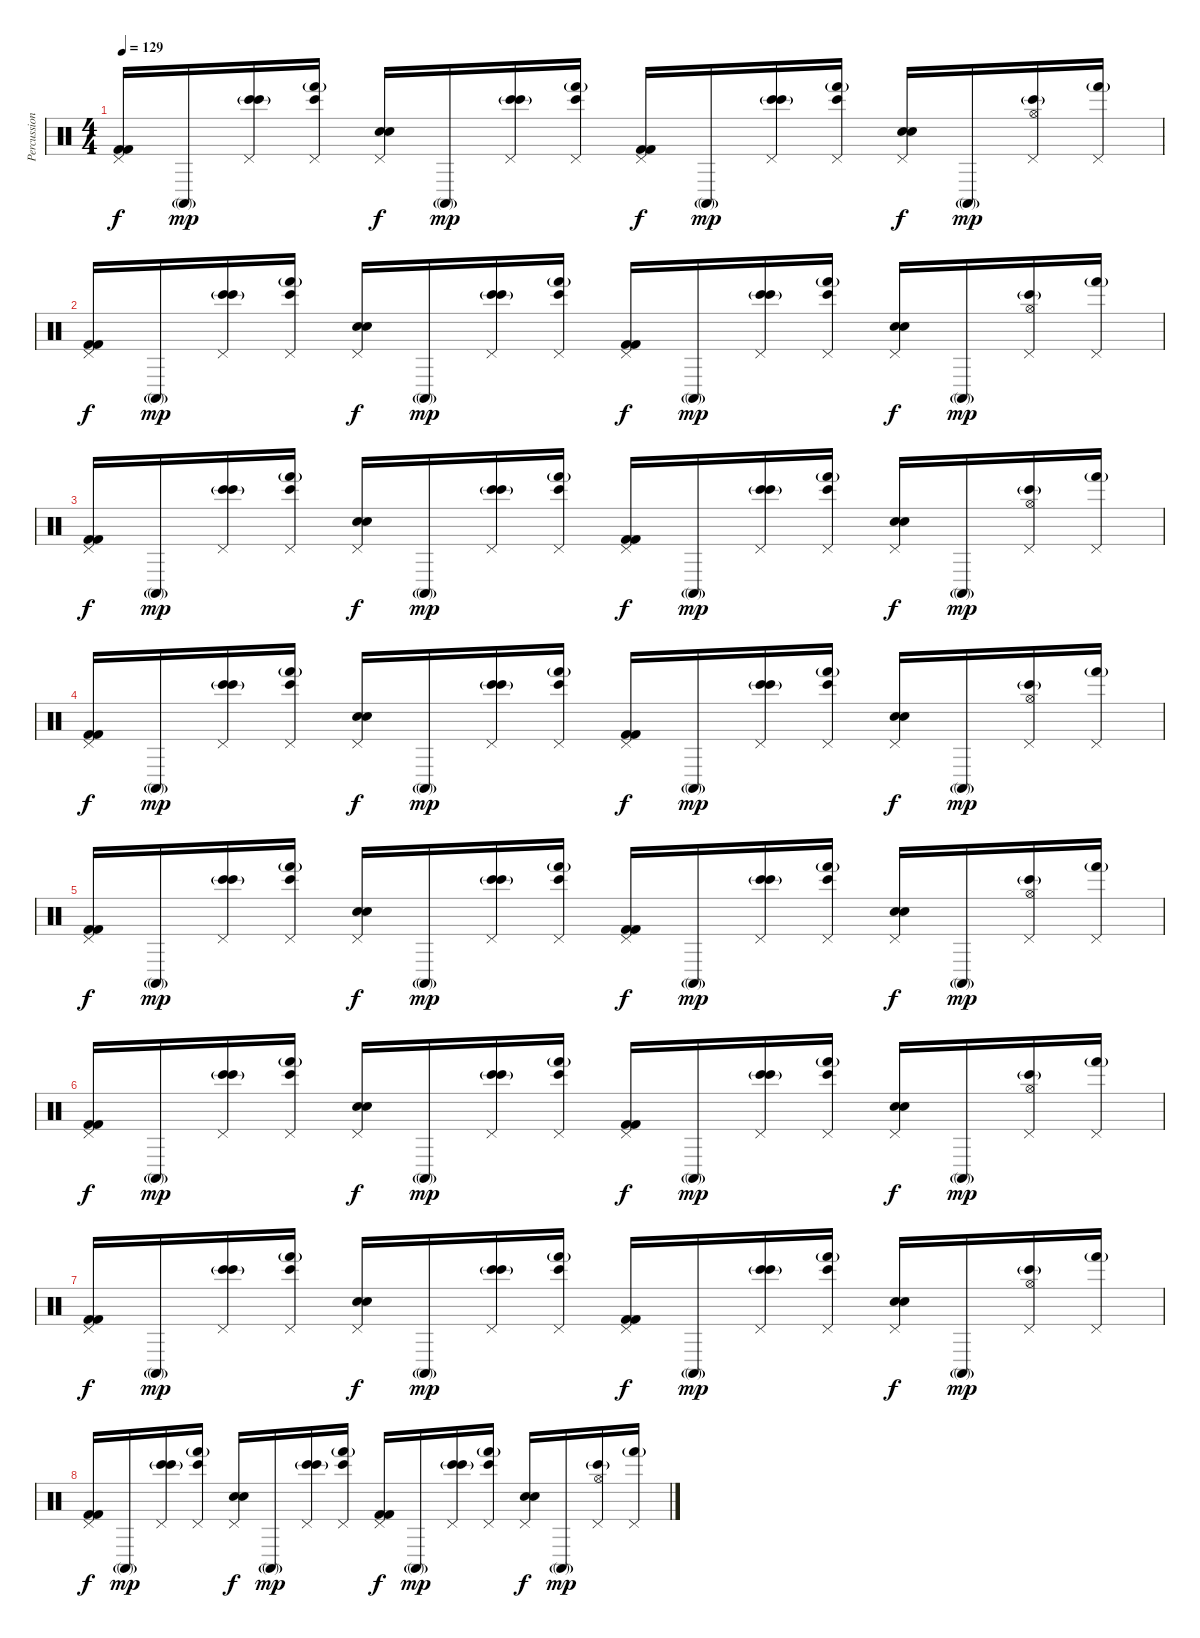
\track ("Percussion" "Percussion") {instrument percussion}
\staff {score}
\articulation defaults
\ts (4 4)
\tempo 129
\clef neutral
\ks c
("Pedal Hi-Hat (hit)" "Kick (hit) 2" "Kick (hit) 2").16{dy f} "Conga high (mute)"{g}.16{dy mp} ("Pedal Hi-Hat (hit)" "Bongo High (hit)" "Bongo High (hit)"{g}).16 ("Pedal Hi-Hat (hit)" "Bongo High (hit)" "Hand (hit)"{g}).16 ("Pedal Hi-Hat (hit)" "Electric Snare (hit)" "Snare (hit) 2").16{dy f} "Conga high (mute)"{g}.16{dy mp} ("Pedal Hi-Hat (hit)" "Bongo High (hit)" "Bongo High (hit)"{g}).16 ("Pedal Hi-Hat (hit)" "Bongo High (hit)" "Hand (hit)"{g}).16 ("Pedal Hi-Hat (hit)" "Kick (hit) 2" "Kick (hit) 2").16{dy f} "Conga high (mute)"{g}.16{dy mp} ("Pedal Hi-Hat (hit)" "Bongo High (hit)" "Bongo High (hit)"{g}).16 ("Pedal Hi-Hat (hit)" "Bongo High (hit)" "Hand (hit)"{g}).16 ("Pedal Hi-Hat (hit)" "Electric Snare (hit)" "Snare (hit) 2").16{dy f} "Conga high (mute)"{g}.16{dy mp} ("Pedal Hi-Hat (hit)" "Hi-Hat (open)" "Bongo High (hit)"{g}).16 ("Pedal Hi-Hat (hit)" "Hand (hit)"{g}).16 |
("Pedal Hi-Hat (hit)" "Kick (hit) 2" "Kick (hit) 2").16{dy f} "Conga high (mute)"{g}.16{dy mp} ("Pedal Hi-Hat (hit)" "Bongo High (hit)" "Bongo High (hit)"{g}).16 ("Pedal Hi-Hat (hit)" "Bongo High (hit)" "Hand (hit)"{g}).16 ("Pedal Hi-Hat (hit)" "Electric Snare (hit)" "Snare (hit) 2").16{dy f} "Conga high (mute)"{g}.16{dy mp} ("Pedal Hi-Hat (hit)" "Bongo High (hit)" "Bongo High (hit)"{g}).16 ("Pedal Hi-Hat (hit)" "Bongo High (hit)" "Hand (hit)"{g}).16 ("Pedal Hi-Hat (hit)" "Kick (hit) 2" "Kick (hit) 2").16{dy f} "Conga high (mute)"{g}.16{dy mp} ("Pedal Hi-Hat (hit)" "Bongo High (hit)" "Bongo High (hit)"{g}).16 ("Pedal Hi-Hat (hit)" "Bongo High (hit)" "Hand (hit)"{g}).16 ("Pedal Hi-Hat (hit)" "Electric Snare (hit)" "Snare (hit) 2").16{dy f} "Conga high (mute)"{g}.16{dy mp} ("Pedal Hi-Hat (hit)" "Hi-Hat (open)" "Bongo High (hit)"{g}).16 ("Pedal Hi-Hat (hit)" "Hand (hit)"{g}).16 |
("Pedal Hi-Hat (hit)" "Kick (hit) 2" "Kick (hit) 2").16{dy f} "Conga high (mute)"{g}.16{dy mp} ("Pedal Hi-Hat (hit)" "Bongo High (hit)" "Bongo High (hit)"{g}).16 ("Pedal Hi-Hat (hit)" "Bongo High (hit)" "Hand (hit)"{g}).16 ("Pedal Hi-Hat (hit)" "Electric Snare (hit)" "Snare (hit) 2").16{dy f} "Conga high (mute)"{g}.16{dy mp} ("Pedal Hi-Hat (hit)" "Bongo High (hit)" "Bongo High (hit)"{g}).16 ("Pedal Hi-Hat (hit)" "Bongo High (hit)" "Hand (hit)"{g}).16 ("Pedal Hi-Hat (hit)" "Kick (hit) 2" "Kick (hit) 2").16{dy f} "Conga high (mute)"{g}.16{dy mp} ("Pedal Hi-Hat (hit)" "Bongo High (hit)" "Bongo High (hit)"{g}).16 ("Pedal Hi-Hat (hit)" "Bongo High (hit)" "Hand (hit)"{g}).16 ("Pedal Hi-Hat (hit)" "Electric Snare (hit)" "Snare (hit) 2").16{dy f} "Conga high (mute)"{g}.16{dy mp} ("Pedal Hi-Hat (hit)" "Hi-Hat (open)" "Bongo High (hit)"{g}).16 ("Pedal Hi-Hat (hit)" "Hand (hit)"{g}).16 |
("Pedal Hi-Hat (hit)" "Kick (hit) 2" "Kick (hit) 2").16{dy f} "Conga high (mute)"{g}.16{dy mp} ("Pedal Hi-Hat (hit)" "Bongo High (hit)" "Bongo High (hit)"{g}).16 ("Pedal Hi-Hat (hit)" "Bongo High (hit)" "Hand (hit)"{g}).16 ("Pedal Hi-Hat (hit)" "Electric Snare (hit)" "Snare (hit) 2").16{dy f} "Conga high (mute)"{g}.16{dy mp} ("Pedal Hi-Hat (hit)" "Bongo High (hit)" "Bongo High (hit)"{g}).16 ("Pedal Hi-Hat (hit)" "Bongo High (hit)" "Hand (hit)"{g}).16 ("Pedal Hi-Hat (hit)" "Kick (hit) 2" "Kick (hit) 2").16{dy f} "Conga high (mute)"{g}.16{dy mp} ("Pedal Hi-Hat (hit)" "Bongo High (hit)" "Bongo High (hit)"{g}).16 ("Pedal Hi-Hat (hit)" "Bongo High (hit)" "Hand (hit)"{g}).16 ("Pedal Hi-Hat (hit)" "Electric Snare (hit)" "Snare (hit) 2").16{dy f} "Conga high (mute)"{g}.16{dy mp} ("Pedal Hi-Hat (hit)" "Hi-Hat (open)" "Bongo High (hit)"{g}).16 ("Pedal Hi-Hat (hit)" "Hand (hit)"{g}).16 |
("Pedal Hi-Hat (hit)" "Kick (hit) 2" "Kick (hit) 2").16{dy f} "Conga high (mute)"{g}.16{dy mp} ("Pedal Hi-Hat (hit)" "Bongo High (hit)" "Bongo High (hit)"{g}).16 ("Pedal Hi-Hat (hit)" "Bongo High (hit)" "Hand (hit)"{g}).16 ("Pedal Hi-Hat (hit)" "Electric Snare (hit)" "Snare (hit) 2").16{dy f} "Conga high (mute)"{g}.16{dy mp} ("Pedal Hi-Hat (hit)" "Bongo High (hit)" "Bongo High (hit)"{g}).16 ("Pedal Hi-Hat (hit)" "Bongo High (hit)" "Hand (hit)"{g}).16 ("Pedal Hi-Hat (hit)" "Kick (hit) 2" "Kick (hit) 2").16{dy f} "Conga high (mute)"{g}.16{dy mp} ("Pedal Hi-Hat (hit)" "Bongo High (hit)" "Bongo High (hit)"{g}).16 ("Pedal Hi-Hat (hit)" "Bongo High (hit)" "Hand (hit)"{g}).16 ("Pedal Hi-Hat (hit)" "Electric Snare (hit)" "Snare (hit) 2").16{dy f} "Conga high (mute)"{g}.16{dy mp} ("Pedal Hi-Hat (hit)" "Hi-Hat (open)" "Bongo High (hit)"{g}).16 ("Pedal Hi-Hat (hit)" "Hand (hit)"{g}).16 |
("Pedal Hi-Hat (hit)" "Kick (hit) 2" "Kick (hit) 2").16{dy f} "Conga high (mute)"{g}.16{dy mp} ("Pedal Hi-Hat (hit)" "Bongo High (hit)" "Bongo High (hit)"{g}).16 ("Pedal Hi-Hat (hit)" "Bongo High (hit)" "Hand (hit)"{g}).16 ("Pedal Hi-Hat (hit)" "Electric Snare (hit)" "Snare (hit) 2").16{dy f} "Conga high (mute)"{g}.16{dy mp} ("Pedal Hi-Hat (hit)" "Bongo High (hit)" "Bongo High (hit)"{g}).16 ("Pedal Hi-Hat (hit)" "Bongo High (hit)" "Hand (hit)"{g}).16 ("Pedal Hi-Hat (hit)" "Kick (hit) 2" "Kick (hit) 2").16{dy f} "Conga high (mute)"{g}.16{dy mp} ("Pedal Hi-Hat (hit)" "Bongo High (hit)" "Bongo High (hit)"{g}).16 ("Pedal Hi-Hat (hit)" "Bongo High (hit)" "Hand (hit)"{g}).16 ("Pedal Hi-Hat (hit)" "Electric Snare (hit)" "Snare (hit) 2").16{dy f} "Conga high (mute)"{g}.16{dy mp} ("Pedal Hi-Hat (hit)" "Hi-Hat (open)" "Bongo High (hit)"{g}).16 ("Pedal Hi-Hat (hit)" "Hand (hit)"{g}).16 |
("Pedal Hi-Hat (hit)" "Kick (hit) 2" "Kick (hit) 2").16{dy f} "Conga high (mute)"{g}.16{dy mp} ("Pedal Hi-Hat (hit)" "Bongo High (hit)" "Bongo High (hit)"{g}).16 ("Pedal Hi-Hat (hit)" "Bongo High (hit)" "Hand (hit)"{g}).16 ("Pedal Hi-Hat (hit)" "Electric Snare (hit)" "Snare (hit) 2").16{dy f} "Conga high (mute)"{g}.16{dy mp} ("Pedal Hi-Hat (hit)" "Bongo High (hit)" "Bongo High (hit)"{g}).16 ("Pedal Hi-Hat (hit)" "Bongo High (hit)" "Hand (hit)"{g}).16 ("Pedal Hi-Hat (hit)" "Kick (hit) 2" "Kick (hit) 2").16{dy f} "Conga high (mute)"{g}.16{dy mp} ("Pedal Hi-Hat (hit)" "Bongo High (hit)" "Bongo High (hit)"{g}).16 ("Pedal Hi-Hat (hit)" "Bongo High (hit)" "Hand (hit)"{g}).16 ("Pedal Hi-Hat (hit)" "Electric Snare (hit)" "Snare (hit) 2").16{dy f} "Conga high (mute)"{g}.16{dy mp} ("Pedal Hi-Hat (hit)" "Hi-Hat (open)" "Bongo High (hit)"{g}).16 ("Pedal Hi-Hat (hit)" "Hand (hit)"{g}).16 |
("Pedal Hi-Hat (hit)" "Kick (hit) 2" "Kick (hit) 2").16{dy f} "Conga high (mute)"{g}.16{dy mp} ("Pedal Hi-Hat (hit)" "Bongo High (hit)" "Bongo High (hit)"{g}).16 ("Pedal Hi-Hat (hit)" "Bongo High (hit)" "Hand (hit)"{g}).16 ("Pedal Hi-Hat (hit)" "Electric Snare (hit)" "Snare (hit) 2").16{dy f} "Conga high (mute)"{g}.16{dy mp} ("Pedal Hi-Hat (hit)" "Bongo High (hit)" "Bongo High (hit)"{g}).16 ("Pedal Hi-Hat (hit)" "Bongo High (hit)" "Hand (hit)"{g}).16 ("Pedal Hi-Hat (hit)" "Kick (hit) 2" "Kick (hit) 2").16{dy f} "Conga high (mute)"{g}.16{dy mp} ("Pedal Hi-Hat (hit)" "Bongo High (hit)" "Bongo High (hit)"{g}).16 ("Pedal Hi-Hat (hit)" "Bongo High (hit)" "Hand (hit)"{g}).16 ("Pedal Hi-Hat (hit)" "Electric Snare (hit)" "Snare (hit) 2").16{dy f} "Conga high (mute)"{g}.16{dy mp} ("Pedal Hi-Hat (hit)" "Hi-Hat (open)" "Bongo High (hit)"{g}).16 ("Pedal Hi-Hat (hit)" "Hand (hit)"{g}).16
